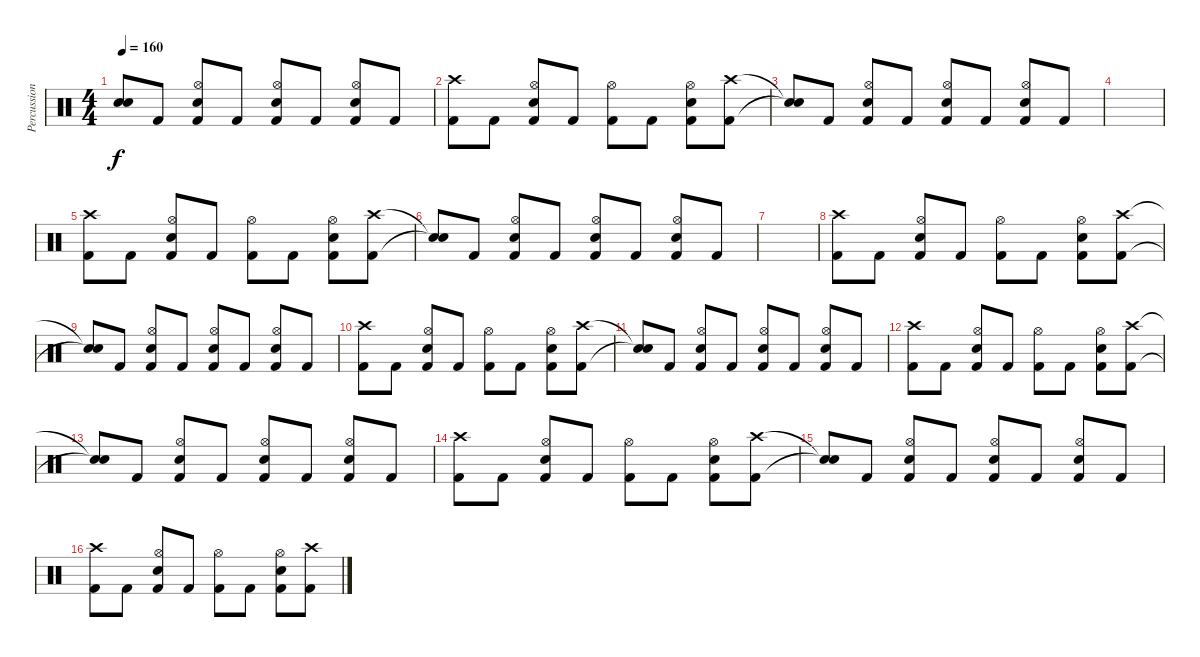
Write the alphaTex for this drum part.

\track ("Percussion" "Percussion") {instrument percussion}
\staff {score}
\articulation defaults
\ts (4 4)
\tempo 160
\clef neutral
\ks c
("Snare (hit)"{t} "Snare (hit)"{t}).8{dy f} "Kick (hit) 2".8 ("Hi-Hat (open)" "Electric Snare (hit)" "Kick (hit) 2").8 "Kick (hit) 2".8 ("Hi-Hat (open)" "Electric Snare (hit)" "Kick (hit) 2").8 "Kick (hit) 2".8 ("Hi-Hat (open)" "Electric Snare (hit)" "Kick (hit) 2").8 "Kick (hit) 2".8 |
("Crash high (hit)" "Kick (hit) 2").8 "Kick (hit) 2".8 ("Hi-Hat (open)" "Electric Snare (hit)" "Kick (hit) 2").8 "Kick (hit) 2".8 ("Hi-Hat (open)" "Kick (hit) 2").8 "Kick (hit) 2".8 ("Hi-Hat (open)" "Electric Snare (hit)" "Kick (hit) 2").8 ("Crash high (hit)" "Kick (hit) 2").8 |
("Snare (hit)"{t} "Snare (hit)"{t}).8 "Kick (hit) 2".8 ("Hi-Hat (open)" "Electric Snare (hit)" "Kick (hit) 2").8 "Kick (hit) 2".8 ("Hi-Hat (open)" "Electric Snare (hit)" "Kick (hit) 2").8 "Kick (hit) 2".8 ("Hi-Hat (open)" "Electric Snare (hit)" "Kick (hit) 2").8 "Kick (hit) 2".8 |
|
("Crash high (hit)" "Kick (hit) 2").8 "Kick (hit) 2".8 ("Hi-Hat (open)" "Electric Snare (hit)" "Kick (hit) 2").8 "Kick (hit) 2".8 ("Hi-Hat (open)" "Kick (hit) 2").8 "Kick (hit) 2".8 ("Hi-Hat (open)" "Electric Snare (hit)" "Kick (hit) 2").8 ("Crash high (hit)" "Kick (hit) 2").8 |
("Snare (hit)"{t} "Snare (hit)"{t}).8 "Kick (hit) 2".8 ("Hi-Hat (open)" "Electric Snare (hit)" "Kick (hit) 2").8 "Kick (hit) 2".8 ("Hi-Hat (open)" "Electric Snare (hit)" "Kick (hit) 2").8 "Kick (hit) 2".8 ("Hi-Hat (open)" "Electric Snare (hit)" "Kick (hit) 2").8 "Kick (hit) 2".8 |
|
("Crash high (hit)" "Kick (hit) 2").8 "Kick (hit) 2".8 ("Hi-Hat (open)" "Electric Snare (hit)" "Kick (hit) 2").8 "Kick (hit) 2".8 ("Hi-Hat (open)" "Kick (hit) 2").8 "Kick (hit) 2".8 ("Hi-Hat (open)" "Electric Snare (hit)" "Kick (hit) 2").8 ("Crash high (hit)" "Kick (hit) 2").8 |
("Snare (hit)"{t} "Snare (hit)"{t}).8 "Kick (hit) 2".8 ("Hi-Hat (open)" "Electric Snare (hit)" "Kick (hit) 2").8 "Kick (hit) 2".8 ("Hi-Hat (open)" "Electric Snare (hit)" "Kick (hit) 2").8 "Kick (hit) 2".8 ("Hi-Hat (open)" "Electric Snare (hit)" "Kick (hit) 2").8 "Kick (hit) 2".8 |
("Crash high (hit)" "Kick (hit) 2").8 "Kick (hit) 2".8 ("Hi-Hat (open)" "Electric Snare (hit)" "Kick (hit) 2").8 "Kick (hit) 2".8 ("Hi-Hat (open)" "Kick (hit) 2").8 "Kick (hit) 2".8 ("Hi-Hat (open)" "Electric Snare (hit)" "Kick (hit) 2").8 ("Crash high (hit)" "Kick (hit) 2").8 |
("Snare (hit)"{t} "Snare (hit)"{t}).8 "Kick (hit) 2".8 ("Hi-Hat (open)" "Electric Snare (hit)" "Kick (hit) 2").8 "Kick (hit) 2".8 ("Hi-Hat (open)" "Electric Snare (hit)" "Kick (hit) 2").8 "Kick (hit) 2".8 ("Hi-Hat (open)" "Electric Snare (hit)" "Kick (hit) 2").8 "Kick (hit) 2".8 |
("Crash high (hit)" "Kick (hit) 2").8 "Kick (hit) 2".8 ("Hi-Hat (open)" "Electric Snare (hit)" "Kick (hit) 2").8 "Kick (hit) 2".8 ("Hi-Hat (open)" "Kick (hit) 2").8 "Kick (hit) 2".8 ("Hi-Hat (open)" "Electric Snare (hit)" "Kick (hit) 2").8 ("Crash high (hit)" "Kick (hit) 2").8 |
("Snare (hit)"{t} "Snare (hit)"{t}).8 "Kick (hit) 2".8 ("Hi-Hat (open)" "Electric Snare (hit)" "Kick (hit) 2").8 "Kick (hit) 2".8 ("Hi-Hat (open)" "Electric Snare (hit)" "Kick (hit) 2").8 "Kick (hit) 2".8 ("Hi-Hat (open)" "Electric Snare (hit)" "Kick (hit) 2").8 "Kick (hit) 2".8 |
("Crash high (hit)" "Kick (hit) 2").8 "Kick (hit) 2".8 ("Hi-Hat (open)" "Electric Snare (hit)" "Kick (hit) 2").8 "Kick (hit) 2".8 ("Hi-Hat (open)" "Kick (hit) 2").8 "Kick (hit) 2".8 ("Hi-Hat (open)" "Electric Snare (hit)" "Kick (hit) 2").8 ("Crash high (hit)" "Kick (hit) 2").8 |
("Snare (hit)"{t} "Snare (hit)"{t}).8 "Kick (hit) 2".8 ("Hi-Hat (open)" "Electric Snare (hit)" "Kick (hit) 2").8 "Kick (hit) 2".8 ("Hi-Hat (open)" "Electric Snare (hit)" "Kick (hit) 2").8 "Kick (hit) 2".8 ("Hi-Hat (open)" "Electric Snare (hit)" "Kick (hit) 2").8 "Kick (hit) 2".8 |
("Crash high (hit)" "Kick (hit) 2").8 "Kick (hit) 2".8 ("Hi-Hat (open)" "Electric Snare (hit)" "Kick (hit) 2").8 "Kick (hit) 2".8 ("Hi-Hat (open)" "Kick (hit) 2").8 "Kick (hit) 2".8 ("Hi-Hat (open)" "Electric Snare (hit)" "Kick (hit) 2").8 ("Crash high (hit)" "Kick (hit) 2").8
